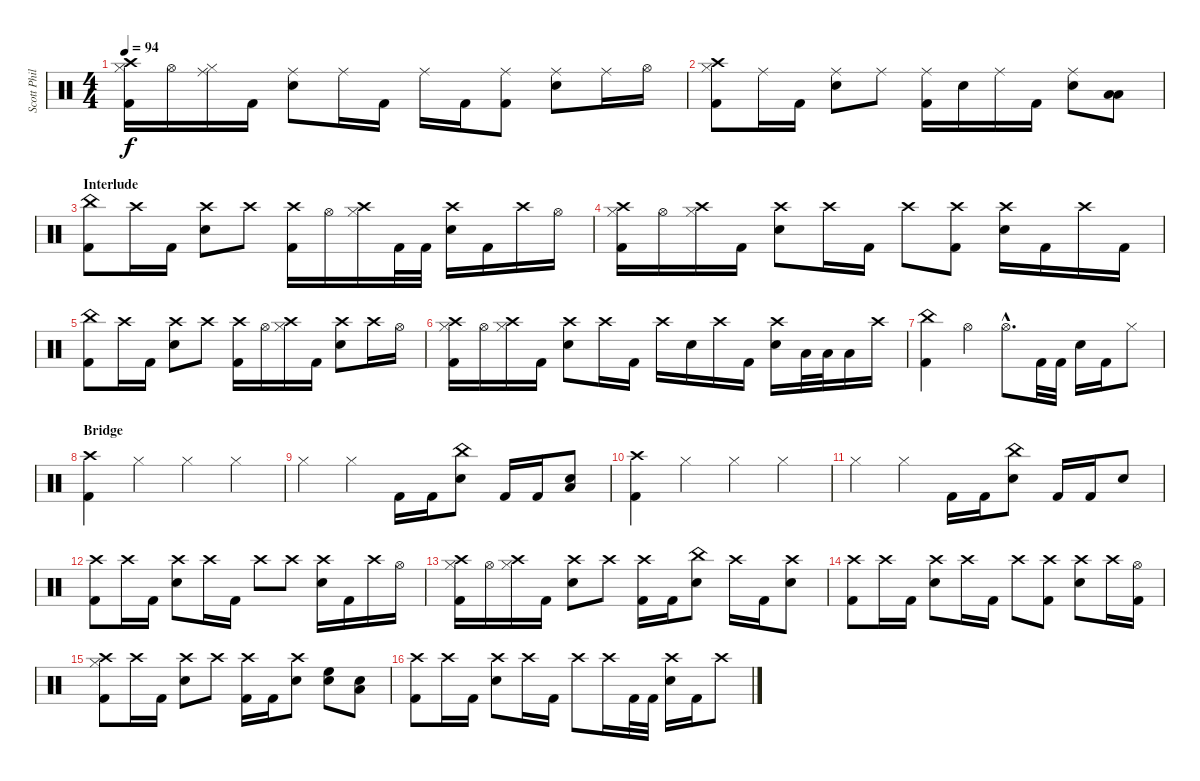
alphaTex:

\track ("Scott Phillips" "Scott Phil") {instrument percussion}
\staff {score}
\articulation defaults
\ts (4 4)
\tempo 94
\clef neutral
\ks c
("Crash high (hit)" "Hi-Hat (closed)" "Kick (hit) 2").16{dy f} "Hi-Hat (open)".16 ("Ride (middle)" "Hi-Hat (closed)").16 "Kick (hit) 2".16 ("Ride (middle)" "Electric Snare (hit)").8 "Ride (middle)".16 "Kick (hit) 2".16 "Ride (middle)".16 "Kick (hit) 2".16 ("Ride (middle)" "Kick (hit) 2").8 ("Ride (middle)" "Electric Snare (hit)").8 "Ride (middle)".16 "Hi-Hat (open)".16 |
("Crash high (hit)" "Hi-Hat (closed)" "Kick (hit) 2").8 "Ride (middle)".16 "Kick (hit) 2".16 ("Ride (middle)" "Electric Snare (hit)").8 "Ride (middle)".8 ("Ride (middle)" "Kick (hit) 2").16 "Electric Snare (hit)".16 "Ride (middle)".16 "Kick (hit) 2".16 ("Ride (middle)" "Electric Snare (hit)").8 ("Low Tom (hit)" "Low Floor Tom (hit)").8 |
\section ("" "Interlude")
("China (hit)" "Kick (hit) 2").8 "Crash high (hit)".16 "Kick (hit) 2".16 ("Crash high (hit)" "Electric Snare (hit)").8 "Crash high (hit)".8 ("Crash high (hit)" "Kick (hit) 2").16 "Hi-Hat (open)".16 ("Crash high (hit)" "Hi-Hat (closed)").16 "Kick (hit) 2".32 "Kick (hit) 2".32 ("Crash high (hit)" "Electric Snare (hit)").16 "Kick (hit) 2".16 "Crash high (hit)".16 "Hi-Hat (open)".16 |
("Crash high (hit)" "Hi-Hat (closed)" "Kick (hit) 2").16 "Hi-Hat (open)".16 ("Crash high (hit)" "Hi-Hat (closed)").16 "Kick (hit) 2".16 ("Crash high (hit)" "Electric Snare (hit)").8 "Crash high (hit)".16 "Kick (hit) 2".16 "Crash high (hit)".8 ("Crash high (hit)" "Kick (hit) 2").8 ("Crash high (hit)" "Electric Snare (hit)").16 "Kick (hit) 2".16 "Crash high (hit)".16 "Kick (hit) 2".16 |
("China (hit)" "Kick (hit) 2").8 "Crash high (hit)".16 "Kick (hit) 2".16 ("Crash high (hit)" "Electric Snare (hit)").8 "Crash high (hit)".8 ("Crash high (hit)" "Kick (hit) 2").16 "Hi-Hat (open)".16 ("Crash high (hit)" "Hi-Hat (closed)").16 "Kick (hit) 2".16 ("Crash high (hit)" "Electric Snare (hit)").8 "Crash high (hit)".16 "Hi-Hat (open)".16 |
("Crash high (hit)" "Hi-Hat (closed)" "Kick (hit) 2").16 "Hi-Hat (open)".16 ("Crash high (hit)" "Hi-Hat (closed)").16 "Kick (hit) 2".16 ("Crash high (hit)" "Electric Snare (hit)").8 "Crash high (hit)".16 "Kick (hit) 2".16 "Crash high (hit)".16 "Electric Snare (hit)".16 "Crash high (hit)".16 "Kick (hit) 2".16 ("Crash high (hit)" "Electric Snare (hit)").16 "Low Tom (hit)".32 "Low Tom (hit)".32 "Low Floor Tom (hit)".16 "Crash high (hit)".16 |
("China (hit)" "Kick (hit) 2").4 "Hi-Hat (open)".4 "Hi-Hat (open)"{hac}.8{d} "Kick (hit) 2".32 "Kick (hit) 2".32 "Electric Snare (hit)".16 "Kick (hit) 2".16 "Hi-Hat (closed)".8 |
\section ("" "Bridge")
("Crash high (hit)" "Kick (hit) 2").4 "Hi-Hat (closed)".4 "Hi-Hat (closed)".4 "Hi-Hat (closed)".4 |
"Hi-Hat (closed)".4 "Hi-Hat (closed)".4 "Kick (hit) 2".16 "Kick (hit) 2".16 ("China (hit)" "Electric Snare (hit)").8 "Kick (hit) 2".16 "Kick (hit) 2".16 ("Electric Snare (hit)" "Low Floor Tom (hit)").8 |
("Crash high (hit)" "Kick (hit) 2").4 "Hi-Hat (closed)".4 "Hi-Hat (closed)".4 "Hi-Hat (closed)".4 |
"Hi-Hat (closed)".4 "Hi-Hat (closed)".4 "Kick (hit) 2".16 "Kick (hit) 2".16 ("China (hit)" "Electric Snare (hit)").8 "Kick (hit) 2".16 "Kick (hit) 2".16 "Electric Snare (hit)".8 |
("Crash high (hit)" "Kick (hit) 2").8 "Crash high (hit)".16 "Kick (hit) 2".16 ("Crash high (hit)" "Electric Snare (hit)").8 "Crash high (hit)".16 "Kick (hit) 2".16 "Crash high (hit)".8 "Crash high (hit)".8 ("Crash high (hit)" "Electric Snare (hit)").16 "Kick (hit) 2".16 "Crash high (hit)".16 "Hi-Hat (open)".16 |
("Crash high (hit)" "Hi-Hat (closed)" "Kick (hit) 2").16 "Hi-Hat (open)".16 ("Crash high (hit)" "Hi-Hat (closed)").16 "Kick (hit) 2".16 ("Crash high (hit)" "Electric Snare (hit)").8 "Crash high (hit)".8 ("Crash high (hit)" "Kick (hit) 2").16 "Kick (hit) 2".16 ("China (hit)" "Electric Snare (hit)").8 "Crash high (hit)".16 "Kick (hit) 2".16 ("Crash high (hit)" "Electric Snare (hit)").8 |
("Crash high (hit)" "Kick (hit) 2").8 "Crash high (hit)".16 "Kick (hit) 2".16 ("Crash high (hit)" "Electric Snare (hit)").8 "Crash high (hit)".16 "Kick (hit) 2".16 "Crash high (hit)".8 ("Crash high (hit)" "Kick (hit) 2").8 ("Crash high (hit)" "Electric Snare (hit)").8 "Crash high (hit)".16 ("Hi-Hat (open)" "Kick (hit) 2").16 |
("Crash high (hit)" "Hi-Hat (closed)" "Kick (hit) 2").8 "Crash high (hit)".16 "Kick (hit) 2".16 ("Crash high (hit)" "Electric Snare (hit)").8 "Crash high (hit)".8 ("Crash high (hit)" "Kick (hit) 2").16 "Kick (hit) 2".16 ("Crash high (hit)" "Electric Snare (hit)").8 ("High Floor Tom (hit)" "Electric Snare (hit)").8 ("Electric Snare (hit)" "Low Floor Tom (hit)").8 |
("Crash high (hit)" "Kick (hit) 2").8 "Crash high (hit)".16 "Kick (hit) 2".16 ("Crash high (hit)" "Electric Snare (hit)").8 "Crash high (hit)".16 "Kick (hit) 2".16 "Crash high (hit)".8 "Crash high (hit)".16 "Kick (hit) 2".32 "Kick (hit) 2".32 ("Crash high (hit)" "Electric Snare (hit)").16 "Kick (hit) 2".16 "Crash high (hit)".8
